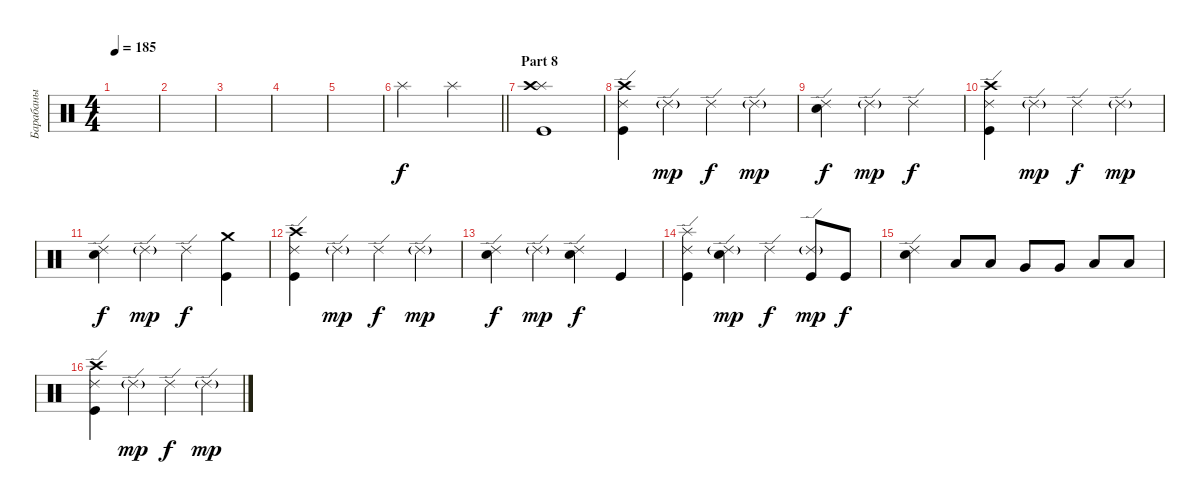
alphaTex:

\track ("Барабаны" "Барабаны") {instrument percussion}
\staff {score}
\articulation defaults
\ts (4 4)
\tempo 185
\clef neutral
\ks c
|
|
|
|
|
\barLineRight lightlight "Splash (hit)".2 "Splash (hit)".2
|
\section ("" "Part 8")
("Splash (hit)" "Crash high (hit)" "Kick (hit)").1 |
("Ride (edge) 2" "Crash high (hit)" "Kick (hit)").4 "Ride (edge) 2"{g}.4{dy mp} "Ride (edge) 2".4{dy f} "Ride (edge) 2"{g}.4{dy mp} |
("Ride (edge) 2" "Electric Snare (hit)").4{dy f} "Ride (edge) 2"{g}.4{dy mp} "Ride (edge) 2".2{dy f} |
("Ride (edge) 2" "Crash high (hit)" "Kick (hit)").4 "Ride (edge) 2"{g}.4{dy mp} "Ride (edge) 2".4{dy f} "Ride (edge) 2"{g}.4{dy mp} |
("Ride (edge) 2" "Electric Snare (hit)").4{dy f} "Ride (edge) 2"{g}.4{dy mp} "Ride (edge) 2".4{dy f} ("Crash medium (hit)" "Kick (hit)").4 |
("Ride (edge) 2" "Crash high (hit)" "Kick (hit)").4 "Ride (edge) 2"{g}.4{dy mp} "Ride (edge) 2".4{dy f} "Ride (edge) 2"{g}.4{dy mp} |
("Ride (edge) 2" "Electric Snare (hit)").4{dy f} "Ride (edge) 2"{g}.4{dy mp} ("Ride (edge) 2" "Electric Snare (hit)").4{dy f} "Kick (hit)".4 |
("Ride (edge) 2" "Splash (hit)" "Kick (hit)").4 ("Ride (edge) 2"{g} "Electric Snare (hit)").4{dy mp} "Ride (edge) 2".4{dy f} ("Ride (edge) 2"{g} "Kick (hit)").8{dy mp} "Kick (hit)".8{dy f} |
("Ride (edge) 2" "Electric Snare (hit)").4 "Low Tom (hit)".8 "Low Tom (hit)".8 "Very Low Tom (hit)".8 "Very Low Tom (hit)".8 "Low Floor Tom (hit)".8 "Low Floor Tom (hit)".8 |
("Ride (edge) 2" "Crash high (hit)" "Kick (hit)").4 "Ride (edge) 2"{g}.4{dy mp} "Ride (edge) 2".4{dy f} "Ride (edge) 2"{g}.4{dy mp}
